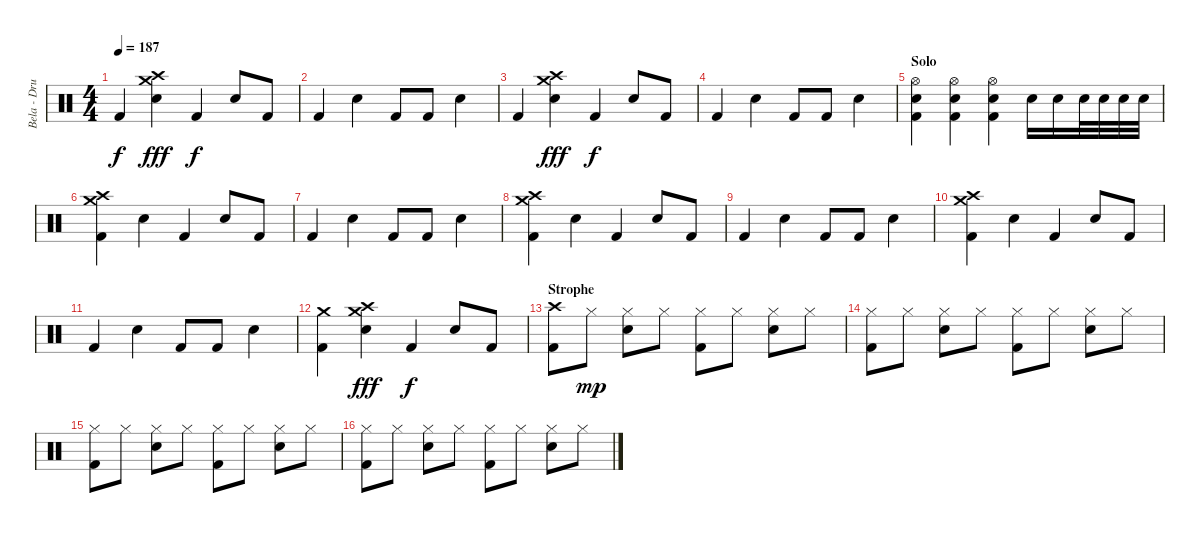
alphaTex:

\track ("Bela - Drums" "Bela - Dru") {instrument percussion}
\staff {score}
\articulation defaults
\ts (4 4)
\tempo 187
\clef neutral
\ks c "Kick (hit) 2".4{dy f}
("Crash medium (hit)" "Crash high (hit)" "Snare (hit) 2").4{dy fff} "Kick (hit) 2".4{dy f} "Snare (hit) 2".8 "Kick (hit) 2".8 |
"Kick (hit) 2".4 "Snare (hit) 2".4 "Kick (hit) 2".8 "Kick (hit) 2".8 "Snare (hit) 2".4 |
"Kick (hit) 2".4 ("Crash medium (hit)" "Crash high (hit)" "Snare (hit) 2").4{dy fff} "Kick (hit) 2".4{dy f} "Snare (hit) 2".8 "Kick (hit) 2".8 |
"Kick (hit) 2".4 "Snare (hit) 2".4 "Kick (hit) 2".8 "Kick (hit) 2".8 "Snare (hit) 2".4 |
\section ("" "Solo")
("Hi-Hat (open)" "Snare (hit) 2" "Kick (hit) 2").4 ("Hi-Hat (open)" "Snare (hit) 2" "Kick (hit) 2").4 ("Hi-Hat (open)" "Snare (hit) 2" "Kick (hit) 2").4 "Snare (hit) 2".16 "Snare (hit) 2".16 "Snare (hit) 2".32 "Snare (hit) 2".32 "Snare (hit) 2".32 "Snare (hit) 2".32 |
("Crash medium (hit)" "Crash high (hit)" "Kick (hit) 2").4 "Snare (hit) 2".4 "Kick (hit) 2".4 "Snare (hit) 2".8 "Kick (hit) 2".8 |
"Kick (hit) 2".4 "Snare (hit) 2".4 "Kick (hit) 2".8 "Kick (hit) 2".8 "Snare (hit) 2".4 |
("Crash medium (hit)" "Crash high (hit)" "Kick (hit) 2").4 "Snare (hit) 2".4 "Kick (hit) 2".4 "Snare (hit) 2".8 "Kick (hit) 2".8 |
"Kick (hit) 2".4 "Snare (hit) 2".4 "Kick (hit) 2".8 "Kick (hit) 2".8 "Snare (hit) 2".4 |
("Crash medium (hit)" "Crash high (hit)" "Kick (hit) 2").4 "Snare (hit) 2".4 "Kick (hit) 2".4 "Snare (hit) 2".8 "Kick (hit) 2".8 |
"Kick (hit) 2".4 "Snare (hit) 2".4 "Kick (hit) 2".8 "Kick (hit) 2".8 "Snare (hit) 2".4 |
("Crash medium (hit)" "Kick (hit) 2").4 ("Crash medium (hit)" "Crash high (hit)" "Snare (hit) 2").4{dy fff} "Kick (hit) 2".4{dy f} "Snare (hit) 2".8 "Kick (hit) 2".8 |
\section ("" "Strophe")
("Crash high (hit)" "Kick (hit) 2").8 "Hi-Hat (closed)".8{dy mp} ("Hi-Hat (closed)" "Snare (hit) 2").8 "Hi-Hat (closed)".8 ("Hi-Hat (closed)" "Kick (hit) 2").8 "Hi-Hat (closed)".8 ("Hi-Hat (closed)" "Snare (hit) 2").8 "Hi-Hat (closed)".8 |
("Hi-Hat (closed)" "Kick (hit) 2").8 "Hi-Hat (closed)".8 ("Hi-Hat (closed)" "Snare (hit) 2").8 "Hi-Hat (closed)".8 ("Hi-Hat (closed)" "Kick (hit) 2").8 "Hi-Hat (closed)".8 ("Hi-Hat (closed)" "Snare (hit) 2").8 "Hi-Hat (closed)".8 |
("Hi-Hat (closed)" "Kick (hit) 2").8 "Hi-Hat (closed)".8 ("Hi-Hat (closed)" "Snare (hit) 2").8 "Hi-Hat (closed)".8 ("Hi-Hat (closed)" "Kick (hit) 2").8 "Hi-Hat (closed)".8 ("Hi-Hat (closed)" "Snare (hit) 2").8 "Hi-Hat (closed)".8 |
("Hi-Hat (closed)" "Kick (hit) 2").8 "Hi-Hat (closed)".8 ("Hi-Hat (closed)" "Snare (hit) 2").8 "Hi-Hat (closed)".8 ("Hi-Hat (closed)" "Kick (hit) 2").8 "Hi-Hat (closed)".8 ("Hi-Hat (closed)" "Snare (hit) 2").8 "Hi-Hat (closed)".8
